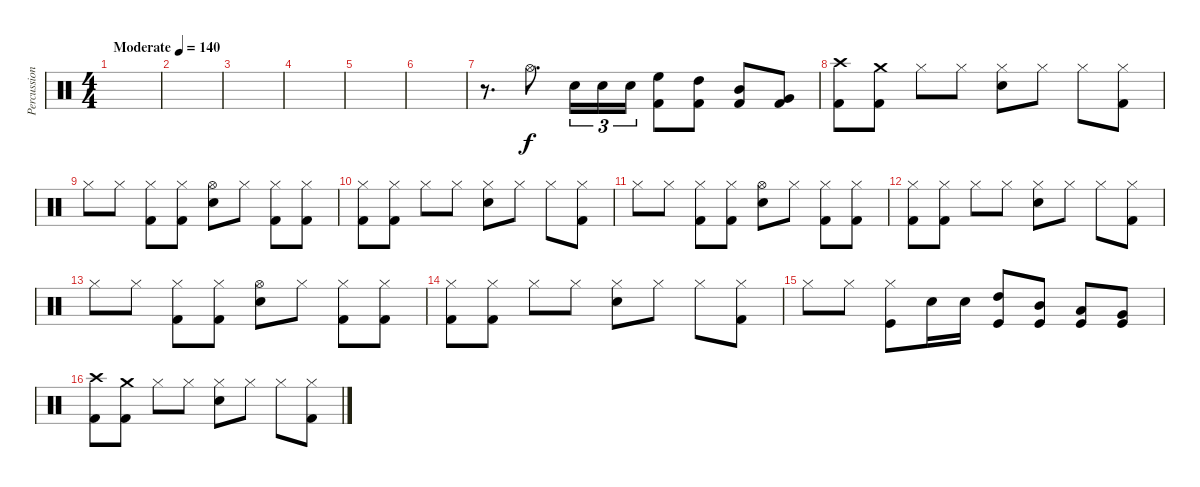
\track ("Percussion" "Percussion") {instrument percussion}
\staff {score}
\articulation defaults
\ts (4 4)
\tempo (140 "Moderate")
\clef neutral
\ks c
|
|
|
|
|
|
r.8{d} "Hi-Hat (open)".8{d} "Electric Snare (hit)".16{tu (3 2)} "Electric Snare (hit)".16{tu (3 2)} "Electric Snare (hit)".16{tu (3 2)} ("High Floor Tom (hit)" "Kick (hit) 2").8 ("High Tom (hit)" "Kick (hit) 2").8 ("Mid Tom (hit)" "Kick (hit) 2").8 ("Kick (hit) 2" "Very Low Tom (hit)").8 |
("Crash high (hit)" "Kick (hit) 2").8 ("Crash medium (hit)" "Kick (hit) 2").8 "Hi-Hat (closed)".8 "Hi-Hat (closed)".8 ("Hi-Hat (closed)" "Electric Snare (hit)").8 "Hi-Hat (closed)".8 "Hi-Hat (closed)".8 ("Hi-Hat (closed)" "Kick (hit) 2").8 |
"Hi-Hat (closed)".8 "Hi-Hat (closed)".8 ("Hi-Hat (closed)" "Kick (hit) 2").8 ("Hi-Hat (closed)" "Kick (hit) 2").8 ("Hi-Hat (open)" "Electric Snare (hit)").8 "Hi-Hat (closed)".8 ("Hi-Hat (closed)" "Kick (hit) 2").8 ("Hi-Hat (closed)" "Kick (hit) 2").8 |
("Hi-Hat (closed)" "Kick (hit) 2").8 ("Hi-Hat (closed)" "Kick (hit) 2").8 "Hi-Hat (closed)".8 "Hi-Hat (closed)".8 ("Hi-Hat (closed)" "Electric Snare (hit)").8 "Hi-Hat (closed)".8 "Hi-Hat (closed)".8 ("Hi-Hat (closed)" "Kick (hit) 2").8 |
"Hi-Hat (closed)".8 "Hi-Hat (closed)".8 ("Hi-Hat (closed)" "Kick (hit) 2").8 ("Hi-Hat (closed)" "Kick (hit) 2").8 ("Hi-Hat (open)" "Electric Snare (hit)").8 "Hi-Hat (closed)".8 ("Hi-Hat (closed)" "Kick (hit) 2").8 ("Hi-Hat (closed)" "Kick (hit) 2").8 |
("Hi-Hat (closed)" "Kick (hit) 2").8 ("Hi-Hat (closed)" "Kick (hit) 2").8 "Hi-Hat (closed)".8 "Hi-Hat (closed)".8 ("Hi-Hat (closed)" "Electric Snare (hit)").8 "Hi-Hat (closed)".8 "Hi-Hat (closed)".8 ("Hi-Hat (closed)" "Kick (hit) 2").8 |
"Hi-Hat (closed)".8 "Hi-Hat (closed)".8 ("Hi-Hat (closed)" "Kick (hit) 2").8 ("Hi-Hat (closed)" "Kick (hit) 2").8 ("Hi-Hat (open)" "Electric Snare (hit)").8 "Hi-Hat (closed)".8 ("Hi-Hat (closed)" "Kick (hit) 2").8 ("Hi-Hat (closed)" "Kick (hit) 2").8 |
("Hi-Hat (closed)" "Kick (hit) 2").8 ("Hi-Hat (closed)" "Kick (hit) 2").8 "Hi-Hat (closed)".8 "Hi-Hat (closed)".8 ("Hi-Hat (closed)" "Electric Snare (hit)").8 "Hi-Hat (closed)".8 "Hi-Hat (closed)".8 ("Hi-Hat (closed)" "Kick (hit) 2").8 |
"Hi-Hat (closed)".8 "Hi-Hat (closed)".8 ("Hi-Hat (closed)" "Kick (hit)").8 "Electric Snare (hit)".16 "Electric Snare (hit)".16 ("Kick (hit)" "High Tom (hit)").8 ("Kick (hit)" "Mid Tom (hit)").8 ("Kick (hit)" "Low Tom (hit)").8 ("Kick (hit)" "Very Low Tom (hit)").8 |
("Crash high (hit)" "Kick (hit) 2").8 ("Crash medium (hit)" "Kick (hit) 2").8 "Hi-Hat (closed)".8 "Hi-Hat (closed)".8 ("Hi-Hat (closed)" "Electric Snare (hit)").8 "Hi-Hat (closed)".8 "Hi-Hat (closed)".8 ("Hi-Hat (closed)" "Kick (hit) 2").8
